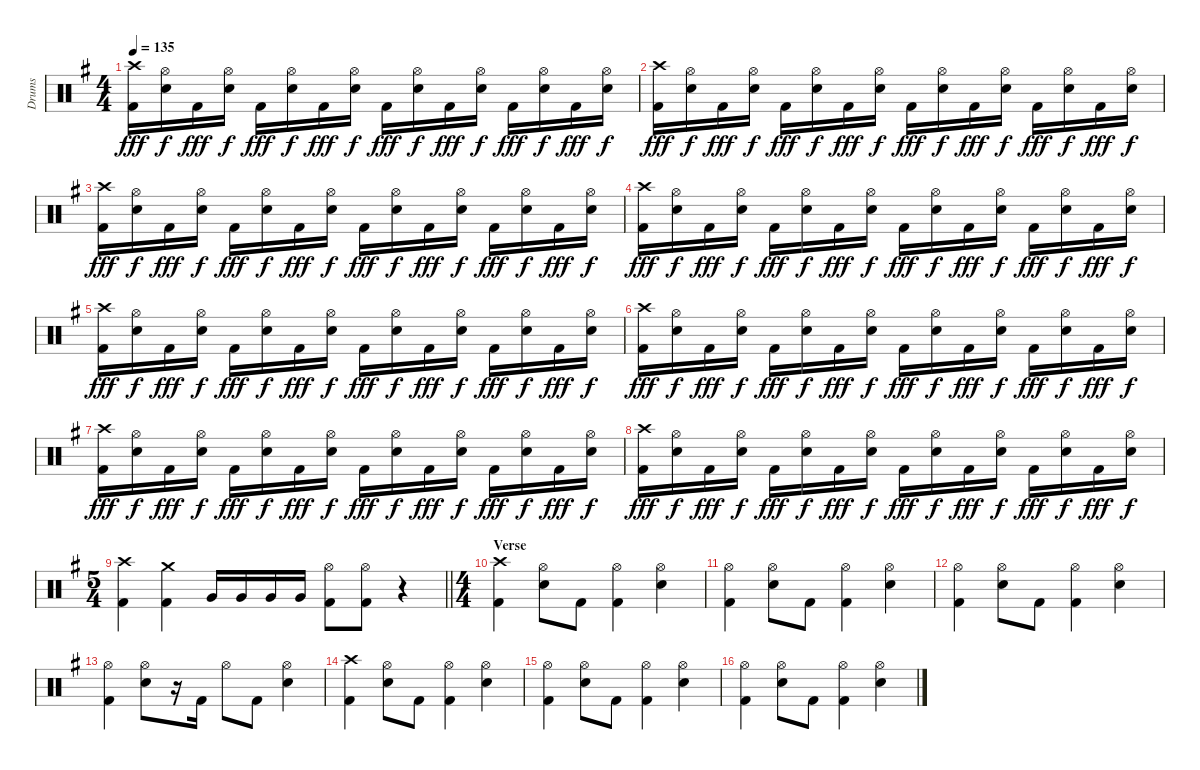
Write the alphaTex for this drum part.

\track ("Drums" "Drums") {instrument percussion}
\staff {score}
\articulation defaults
\ts (4 4)
\tempo 135
\clef neutral
\ks g
("Crash high (hit)" "Kick (hit) 2").16{dy fff} ("Hi-Hat (open)" "Snare (hit) 2").16{dy f} "Kick (hit) 2".16{dy fff} ("Hi-Hat (open)" "Snare (hit) 2").16{dy f} "Kick (hit) 2".16{dy fff} ("Hi-Hat (open)" "Snare (hit) 2").16{dy f} "Kick (hit) 2".16{dy fff} ("Hi-Hat (open)" "Snare (hit) 2").16{dy f} "Kick (hit) 2".16{dy fff} ("Hi-Hat (open)" "Snare (hit) 2").16{dy f} "Kick (hit) 2".16{dy fff} ("Hi-Hat (open)" "Snare (hit) 2").16{dy f} "Kick (hit) 2".16{dy fff} ("Hi-Hat (open)" "Snare (hit) 2").16{dy f} "Kick (hit) 2".16{dy fff} ("Hi-Hat (open)" "Snare (hit) 2").16{dy f} |
("Crash high (hit)" "Kick (hit) 2").16{dy fff} ("Hi-Hat (open)" "Snare (hit) 2").16{dy f} "Kick (hit) 2".16{dy fff} ("Hi-Hat (open)" "Snare (hit) 2").16{dy f} "Kick (hit) 2".16{dy fff} ("Hi-Hat (open)" "Snare (hit) 2").16{dy f} "Kick (hit) 2".16{dy fff} ("Hi-Hat (open)" "Snare (hit) 2").16{dy f} "Kick (hit) 2".16{dy fff} ("Hi-Hat (open)" "Snare (hit) 2").16{dy f} "Kick (hit) 2".16{dy fff} ("Hi-Hat (open)" "Snare (hit) 2").16{dy f} "Kick (hit) 2".16{dy fff} ("Hi-Hat (open)" "Snare (hit) 2").16{dy f} "Kick (hit) 2".16{dy fff} ("Hi-Hat (open)" "Snare (hit) 2").16{dy f} |
("Crash high (hit)" "Kick (hit) 2").16{dy fff} ("Hi-Hat (open)" "Snare (hit) 2").16{dy f} "Kick (hit) 2".16{dy fff} ("Hi-Hat (open)" "Snare (hit) 2").16{dy f} "Kick (hit) 2".16{dy fff} ("Hi-Hat (open)" "Snare (hit) 2").16{dy f} "Kick (hit) 2".16{dy fff} ("Hi-Hat (open)" "Snare (hit) 2").16{dy f} "Kick (hit) 2".16{dy fff} ("Hi-Hat (open)" "Snare (hit) 2").16{dy f} "Kick (hit) 2".16{dy fff} ("Hi-Hat (open)" "Snare (hit) 2").16{dy f} "Kick (hit) 2".16{dy fff} ("Hi-Hat (open)" "Snare (hit) 2").16{dy f} "Kick (hit) 2".16{dy fff} ("Hi-Hat (open)" "Snare (hit) 2").16{dy f} |
("Crash high (hit)" "Kick (hit) 2").16{dy fff} ("Hi-Hat (open)" "Snare (hit) 2").16{dy f} "Kick (hit) 2".16{dy fff} ("Hi-Hat (open)" "Snare (hit) 2").16{dy f} "Kick (hit) 2".16{dy fff} ("Hi-Hat (open)" "Snare (hit) 2").16{dy f} "Kick (hit) 2".16{dy fff} ("Hi-Hat (open)" "Snare (hit) 2").16{dy f} "Kick (hit) 2".16{dy fff} ("Hi-Hat (open)" "Snare (hit) 2").16{dy f} "Kick (hit) 2".16{dy fff} ("Hi-Hat (open)" "Snare (hit) 2").16{dy f} "Kick (hit) 2".16{dy fff} ("Hi-Hat (open)" "Snare (hit) 2").16{dy f} "Kick (hit) 2".16{dy fff} ("Hi-Hat (open)" "Snare (hit) 2").16{dy f} |
("Crash high (hit)" "Kick (hit) 2").16{dy fff} ("Hi-Hat (open)" "Snare (hit) 2").16{dy f} "Kick (hit) 2".16{dy fff} ("Hi-Hat (open)" "Snare (hit) 2").16{dy f} "Kick (hit) 2".16{dy fff} ("Hi-Hat (open)" "Snare (hit) 2").16{dy f} "Kick (hit) 2".16{dy fff} ("Hi-Hat (open)" "Snare (hit) 2").16{dy f} "Kick (hit) 2".16{dy fff} ("Hi-Hat (open)" "Snare (hit) 2").16{dy f} "Kick (hit) 2".16{dy fff} ("Hi-Hat (open)" "Snare (hit) 2").16{dy f} "Kick (hit) 2".16{dy fff} ("Hi-Hat (open)" "Snare (hit) 2").16{dy f} "Kick (hit) 2".16{dy fff} ("Hi-Hat (open)" "Snare (hit) 2").16{dy f} |
("Crash high (hit)" "Kick (hit) 2").16{dy fff} ("Hi-Hat (open)" "Snare (hit) 2").16{dy f} "Kick (hit) 2".16{dy fff} ("Hi-Hat (open)" "Snare (hit) 2").16{dy f} "Kick (hit) 2".16{dy fff} ("Hi-Hat (open)" "Snare (hit) 2").16{dy f} "Kick (hit) 2".16{dy fff} ("Hi-Hat (open)" "Snare (hit) 2").16{dy f} "Kick (hit) 2".16{dy fff} ("Hi-Hat (open)" "Snare (hit) 2").16{dy f} "Kick (hit) 2".16{dy fff} ("Hi-Hat (open)" "Snare (hit) 2").16{dy f} "Kick (hit) 2".16{dy fff} ("Hi-Hat (open)" "Snare (hit) 2").16{dy f} "Kick (hit) 2".16{dy fff} ("Hi-Hat (open)" "Snare (hit) 2").16{dy f} |
("Crash high (hit)" "Kick (hit) 2").16{dy fff} ("Hi-Hat (open)" "Snare (hit) 2").16{dy f} "Kick (hit) 2".16{dy fff} ("Hi-Hat (open)" "Snare (hit) 2").16{dy f} "Kick (hit) 2".16{dy fff} ("Hi-Hat (open)" "Snare (hit) 2").16{dy f} "Kick (hit) 2".16{dy fff} ("Hi-Hat (open)" "Snare (hit) 2").16{dy f} "Kick (hit) 2".16{dy fff} ("Hi-Hat (open)" "Snare (hit) 2").16{dy f} "Kick (hit) 2".16{dy fff} ("Hi-Hat (open)" "Snare (hit) 2").16{dy f} "Kick (hit) 2".16{dy fff} ("Hi-Hat (open)" "Snare (hit) 2").16{dy f} "Kick (hit) 2".16{dy fff} ("Hi-Hat (open)" "Snare (hit) 2").16{dy f} |
("Crash high (hit)" "Kick (hit) 2").16{dy fff} ("Hi-Hat (open)" "Snare (hit) 2").16{dy f} "Kick (hit) 2".16{dy fff} ("Hi-Hat (open)" "Snare (hit) 2").16{dy f} "Kick (hit) 2".16{dy fff} ("Hi-Hat (open)" "Snare (hit) 2").16{dy f} "Kick (hit) 2".16{dy fff} ("Hi-Hat (open)" "Snare (hit) 2").16{dy f} "Kick (hit) 2".16{dy fff} ("Hi-Hat (open)" "Snare (hit) 2").16{dy f} "Kick (hit) 2".16{dy fff} ("Hi-Hat (open)" "Snare (hit) 2").16{dy f} "Kick (hit) 2".16{dy fff} ("Hi-Hat (open)" "Snare (hit) 2").16{dy f} "Kick (hit) 2".16{dy fff} ("Hi-Hat (open)" "Snare (hit) 2").16{dy f} |
\ts (5 4)
\barLineRight lightlight
("Crash high (hit)" "Kick (hit) 2").4 ("Crash medium (hit)" "Kick (hit) 2").4 "Very Low Tom (hit)".16 "Very Low Tom (hit)".16 "Very Low Tom (hit)".16 "Very Low Tom (hit)".16 ("Hi-Hat (open)" "Kick (hit) 2").8 ("Hi-Hat (open)" "Kick (hit) 2").8 r.4 |
\ts (4 4)
\section ("" "Verse")
("Crash high (hit)" "Kick (hit) 2").4 ("Hi-Hat (open)" "Snare (hit) 2").8 "Kick (hit) 2".8 ("Hi-Hat (open)" "Kick (hit) 2").4 ("Hi-Hat (open)" "Snare (hit) 2").4 |
("Hi-Hat (open)" "Kick (hit) 2").4 ("Hi-Hat (open)" "Snare (hit) 2").8 "Kick (hit) 2".8 ("Hi-Hat (open)" "Kick (hit) 2").4 ("Hi-Hat (open)" "Snare (hit) 2").4 |
("Hi-Hat (open)" "Kick (hit) 2").4 ("Hi-Hat (open)" "Snare (hit) 2").8 "Kick (hit) 2".8 ("Hi-Hat (open)" "Kick (hit) 2").4 ("Hi-Hat (open)" "Snare (hit) 2").4 |
("Hi-Hat (open)" "Kick (hit) 2").4 ("Hi-Hat (open)" "Snare (hit) 2").8 r.16 "Kick (hit) 2".16 "Hi-Hat (open)".8 "Kick (hit) 2".8 ("Hi-Hat (open)" "Snare (hit) 2").4 |
("Crash high (hit)" "Kick (hit) 2").4 ("Hi-Hat (open)" "Snare (hit) 2").8 "Kick (hit) 2".8 ("Hi-Hat (open)" "Kick (hit) 2").4 ("Hi-Hat (open)" "Snare (hit) 2").4 |
("Hi-Hat (open)" "Kick (hit) 2").4 ("Hi-Hat (open)" "Snare (hit) 2").8 "Kick (hit) 2".8 ("Hi-Hat (open)" "Kick (hit) 2").4 ("Hi-Hat (open)" "Snare (hit) 2").4 |
("Hi-Hat (open)" "Kick (hit) 2").4 ("Hi-Hat (open)" "Snare (hit) 2").8 "Kick (hit) 2".8 ("Hi-Hat (open)" "Kick (hit) 2").4 ("Hi-Hat (open)" "Snare (hit) 2").4
